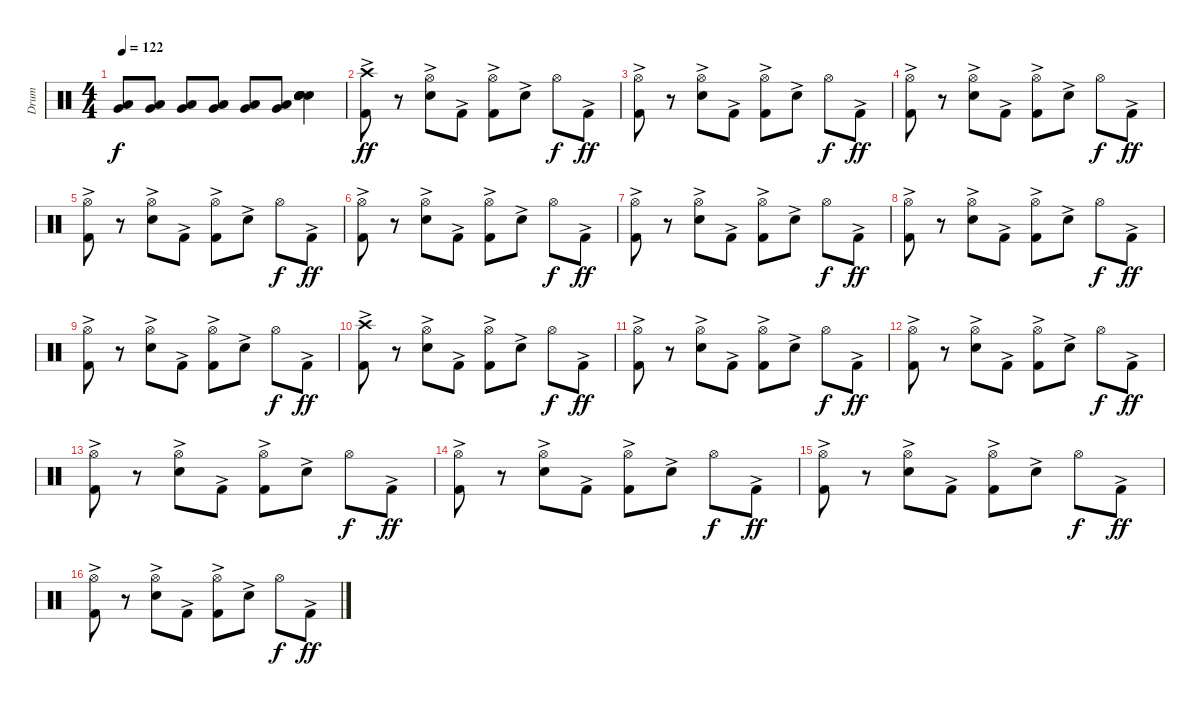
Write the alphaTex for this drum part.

\track ("Drum" "Drum") {instrument percussion}
\staff {score}
\articulation defaults
\ts (4 4)
\tempo 122
\clef neutral
\ks c
("Low Tom (hit)" "Very Low Tom (hit)").8{dy f volume 16} ("Low Tom (hit)" "Very Low Tom (hit)").8 ("Low Tom (hit)" "Very Low Tom (hit)").8 ("Low Tom (hit)" "Very Low Tom (hit)").8 ("Low Tom (hit)" "Very Low Tom (hit)").8 ("Low Tom (hit)" "Very Low Tom (hit)").8 ("Electric Snare (hit)" "Electric Snare (hit)" "Electric Snare (hit)" "Electric Snare (hit)" "Electric Snare (hit)" "Electric Snare (hit)").4 |
("Crash high (hit)" "Kick (hit) 2"{ac}).8{dy ff volume 16} r.8 ("Hi-Hat (open)" "Electric Snare (hit)"{ac}).8 "Kick (hit) 2"{ac}.8 ("Hi-Hat (open)" "Kick (hit) 2"{ac}).8 "Electric Snare (hit)"{ac}.8 "Hi-Hat (open)".8{dy f} "Kick (hit) 2"{ac}.8{dy ff} |
("Hi-Hat (open)" "Kick (hit) 2"{ac}).8 r.8 ("Hi-Hat (open)" "Electric Snare (hit)"{ac}).8 "Kick (hit) 2"{ac}.8 ("Hi-Hat (open)" "Kick (hit) 2"{ac}).8 "Electric Snare (hit)"{ac}.8 "Hi-Hat (open)".8{dy f} "Kick (hit) 2"{ac}.8{dy ff} |
("Hi-Hat (open)" "Kick (hit) 2"{ac}).8 r.8 ("Hi-Hat (open)" "Electric Snare (hit)"{ac}).8 "Kick (hit) 2"{ac}.8 ("Hi-Hat (open)" "Kick (hit) 2"{ac}).8 "Electric Snare (hit)"{ac}.8 "Hi-Hat (open)".8{dy f} "Kick (hit) 2"{ac}.8{dy ff} |
("Hi-Hat (open)" "Kick (hit) 2"{ac}).8 r.8 ("Hi-Hat (open)" "Electric Snare (hit)"{ac}).8 "Kick (hit) 2"{ac}.8 ("Hi-Hat (open)" "Kick (hit) 2"{ac}).8 "Electric Snare (hit)"{ac}.8 "Hi-Hat (open)".8{dy f} "Kick (hit) 2"{ac}.8{dy ff} |
("Hi-Hat (open)" "Kick (hit) 2"{ac}).8 r.8 ("Hi-Hat (open)" "Electric Snare (hit)"{ac}).8 "Kick (hit) 2"{ac}.8 ("Hi-Hat (open)" "Kick (hit) 2"{ac}).8 "Electric Snare (hit)"{ac}.8 "Hi-Hat (open)".8{dy f} "Kick (hit) 2"{ac}.8{dy ff} |
("Hi-Hat (open)" "Kick (hit) 2"{ac}).8 r.8 ("Hi-Hat (open)" "Electric Snare (hit)"{ac}).8 "Kick (hit) 2"{ac}.8 ("Hi-Hat (open)" "Kick (hit) 2"{ac}).8 "Electric Snare (hit)"{ac}.8 "Hi-Hat (open)".8{dy f} "Kick (hit) 2"{ac}.8{dy ff} |
("Hi-Hat (open)" "Kick (hit) 2"{ac}).8 r.8 ("Hi-Hat (open)" "Electric Snare (hit)"{ac}).8 "Kick (hit) 2"{ac}.8 ("Hi-Hat (open)" "Kick (hit) 2"{ac}).8 "Electric Snare (hit)"{ac}.8 "Hi-Hat (open)".8{dy f} "Kick (hit) 2"{ac}.8{dy ff} |
("Hi-Hat (open)" "Kick (hit) 2"{ac}).8 r.8 ("Hi-Hat (open)" "Electric Snare (hit)"{ac}).8 "Kick (hit) 2"{ac}.8 ("Hi-Hat (open)" "Kick (hit) 2"{ac}).8 "Electric Snare (hit)"{ac}.8 "Hi-Hat (open)".8{dy f} "Kick (hit) 2"{ac}.8{dy ff} |
("Crash high (hit)" "Kick (hit) 2"{ac}).8{volume 16} r.8 ("Hi-Hat (open)" "Electric Snare (hit)"{ac}).8 "Kick (hit) 2"{ac}.8 ("Hi-Hat (open)" "Kick (hit) 2"{ac}).8 "Electric Snare (hit)"{ac}.8 "Hi-Hat (open)".8{dy f} "Kick (hit) 2"{ac}.8{dy ff} |
("Hi-Hat (open)" "Kick (hit) 2"{ac}).8 r.8 ("Hi-Hat (open)" "Electric Snare (hit)"{ac}).8 "Kick (hit) 2"{ac}.8 ("Hi-Hat (open)" "Kick (hit) 2"{ac}).8 "Electric Snare (hit)"{ac}.8 "Hi-Hat (open)".8{dy f} "Kick (hit) 2"{ac}.8{dy ff} |
("Hi-Hat (open)" "Kick (hit) 2"{ac}).8 r.8 ("Hi-Hat (open)" "Electric Snare (hit)"{ac}).8 "Kick (hit) 2"{ac}.8 ("Hi-Hat (open)" "Kick (hit) 2"{ac}).8 "Electric Snare (hit)"{ac}.8 "Hi-Hat (open)".8{dy f} "Kick (hit) 2"{ac}.8{dy ff} |
("Hi-Hat (open)" "Kick (hit) 2"{ac}).8 r.8 ("Hi-Hat (open)" "Electric Snare (hit)"{ac}).8 "Kick (hit) 2"{ac}.8 ("Hi-Hat (open)" "Kick (hit) 2"{ac}).8 "Electric Snare (hit)"{ac}.8 "Hi-Hat (open)".8{dy f} "Kick (hit) 2"{ac}.8{dy ff} |
("Hi-Hat (open)" "Kick (hit) 2"{ac}).8 r.8 ("Hi-Hat (open)" "Electric Snare (hit)"{ac}).8 "Kick (hit) 2"{ac}.8 ("Hi-Hat (open)" "Kick (hit) 2"{ac}).8 "Electric Snare (hit)"{ac}.8 "Hi-Hat (open)".8{dy f} "Kick (hit) 2"{ac}.8{dy ff} |
("Hi-Hat (open)" "Kick (hit) 2"{ac}).8 r.8 ("Hi-Hat (open)" "Electric Snare (hit)"{ac}).8 "Kick (hit) 2"{ac}.8 ("Hi-Hat (open)" "Kick (hit) 2"{ac}).8 "Electric Snare (hit)"{ac}.8 "Hi-Hat (open)".8{dy f} "Kick (hit) 2"{ac}.8{dy ff} |
("Hi-Hat (open)" "Kick (hit) 2"{ac}).8 r.8 ("Hi-Hat (open)" "Electric Snare (hit)"{ac}).8 "Kick (hit) 2"{ac}.8 ("Hi-Hat (open)" "Kick (hit) 2"{ac}).8 "Electric Snare (hit)"{ac}.8 "Hi-Hat (open)".8{dy f} "Kick (hit) 2"{ac}.8{dy ff}
